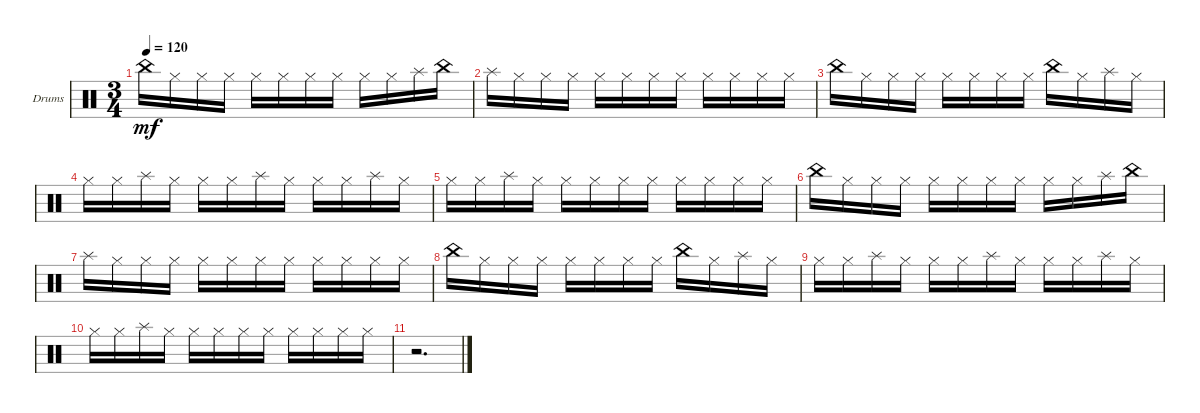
\bracketExtendMode groupsimilarinstruments
\firstSystemTrackNameOrientation horizontal
\otherSystemsTrackNameOrientation horizontal
\track ("Drumkit" "Drums") {multiBarRest instrument percussion}
\staff {score}
\articulation defaults
\ts (3 4)
\tempo 120
\clef neutral
\ks c "China (hit)".16{dy mf} "Hi-Hat (closed)".16 "Hi-Hat (closed)".16 "Hi-Hat (closed)".16 "Hi-Hat (closed)".16 "Hi-Hat (closed)".16 "Hi-Hat (closed)".16 "Hi-Hat (closed)".16 "Hi-Hat (closed)".16 "Hi-Hat (closed)".16 "Splash (hit)".16 "China (hit)".16
|
"Splash (hit)".16 "Hi-Hat (closed)".16 "Hi-Hat (closed)".16 "Hi-Hat (closed)".16 "Hi-Hat (closed)".16 "Hi-Hat (closed)".16 "Hi-Hat (closed)".16 "Hi-Hat (closed)".16 "Hi-Hat (closed)".16 "Hi-Hat (closed)".16 "Hi-Hat (closed)".16 "Hi-Hat (closed)".16 |
"China (hit)".16 "Hi-Hat (closed)".16 "Hi-Hat (closed)".16 "Hi-Hat (closed)".16 "Hi-Hat (closed)".16 "Hi-Hat (closed)".16 "Hi-Hat (closed)".16 "Hi-Hat (closed)".16 "China (hit)".16 "Hi-Hat (closed)".16 "Splash (hit)".16 "Hi-Hat (closed)".16 |
"Hi-Hat (closed)".16 "Hi-Hat (closed)".16 "Splash (hit)".16 "Hi-Hat (closed)".16 "Hi-Hat (closed)".16 "Hi-Hat (closed)".16 "Splash (hit)".16 "Hi-Hat (closed)".16 "Hi-Hat (closed)".16 "Hi-Hat (closed)".16 "Splash (hit)".16 "Hi-Hat (closed)".16 |
"Hi-Hat (closed)".16 "Hi-Hat (closed)".16 "Splash (hit)".16 "Hi-Hat (closed)".16 "Hi-Hat (closed)".16 "Hi-Hat (closed)".16 "Hi-Hat (closed)".16 "Hi-Hat (closed)".16 "Hi-Hat (closed)".16 "Hi-Hat (closed)".16 "Hi-Hat (closed)".16 "Hi-Hat (closed)".16 |
"China (hit)".16 "Hi-Hat (closed)".16 "Hi-Hat (closed)".16 "Hi-Hat (closed)".16 "Hi-Hat (closed)".16 "Hi-Hat (closed)".16 "Hi-Hat (closed)".16 "Hi-Hat (closed)".16 "Hi-Hat (closed)".16 "Hi-Hat (closed)".16 "Splash (hit)".16 "China (hit)".16 |
"Splash (hit)".16 "Hi-Hat (closed)".16 "Hi-Hat (closed)".16 "Hi-Hat (closed)".16 "Hi-Hat (closed)".16 "Hi-Hat (closed)".16 "Hi-Hat (closed)".16 "Hi-Hat (closed)".16 "Hi-Hat (closed)".16 "Hi-Hat (closed)".16 "Hi-Hat (closed)".16 "Hi-Hat (closed)".16 |
"China (hit)".16 "Hi-Hat (closed)".16 "Hi-Hat (closed)".16 "Hi-Hat (closed)".16 "Hi-Hat (closed)".16 "Hi-Hat (closed)".16 "Hi-Hat (closed)".16 "Hi-Hat (closed)".16 "China (hit)".16 "Hi-Hat (closed)".16 "Splash (hit)".16 "Hi-Hat (closed)".16 |
"Hi-Hat (closed)".16 "Hi-Hat (closed)".16 "Splash (hit)".16 "Hi-Hat (closed)".16 "Hi-Hat (closed)".16 "Hi-Hat (closed)".16 "Splash (hit)".16 "Hi-Hat (closed)".16 "Hi-Hat (closed)".16 "Hi-Hat (closed)".16 "Splash (hit)".16 "Hi-Hat (closed)".16 |
"Hi-Hat (closed)".16 "Hi-Hat (closed)".16 "Splash (hit)".16 "Hi-Hat (closed)".16 "Hi-Hat (closed)".16 "Hi-Hat (closed)".16 "Hi-Hat (closed)".16 "Hi-Hat (closed)".16 "Hi-Hat (closed)".16 "Hi-Hat (closed)".16 "Hi-Hat (closed)".16 "Hi-Hat (closed)".16 |
r.2{d}
